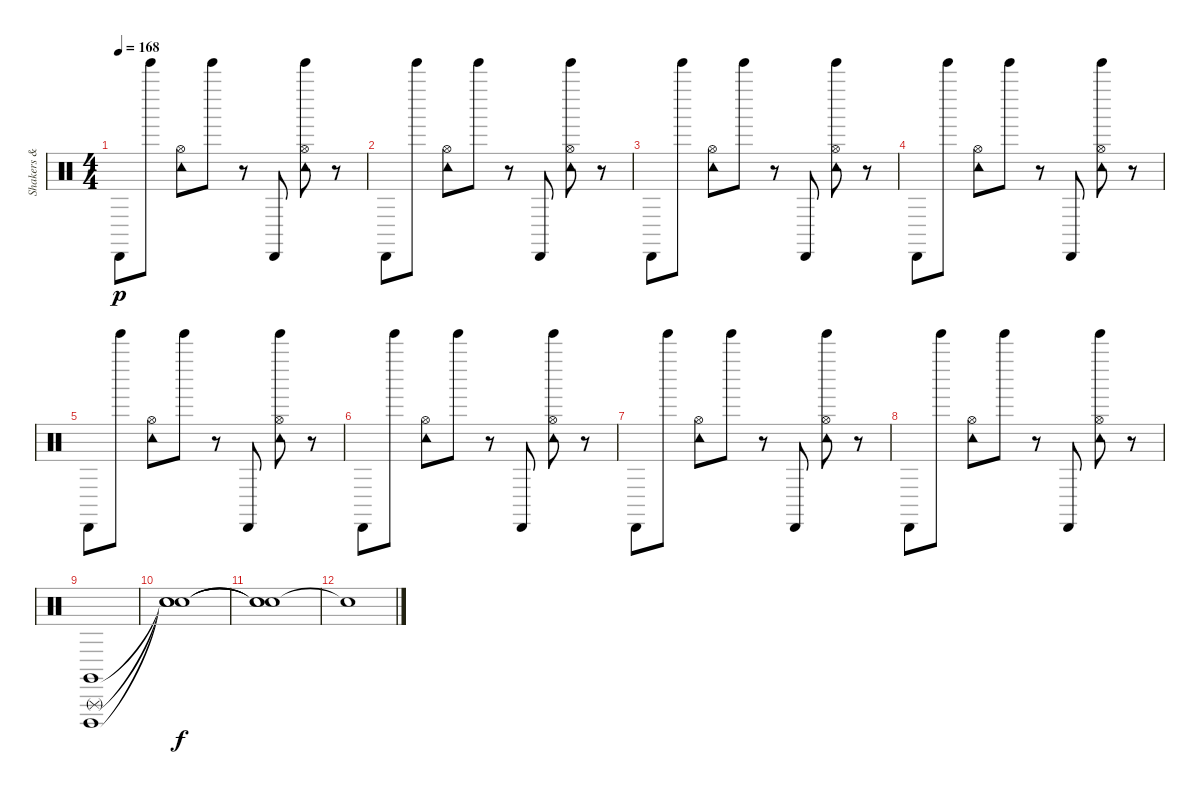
\track ("Shakers & Effects" "Shakers & ") {instrument percussion}
\staff {score}
\articulation defaults
\ts (4 4)
\tempo 168
\clef neutral
\ks c "Cabasa (hit)".8{dy p} "Tinkle Bell (hit)".8
("Tambourine (hit)" "Hi-Hat (open)").8 "Tinkle Bell (hit)".8 r.8 "Cabasa (hit)".8 ("Tambourine (hit)" "Tinkle Bell (hit)" "Hi-Hat (open)").8 r.8 |
"Cabasa (hit)".8 "Tinkle Bell (hit)".8 ("Tambourine (hit)" "Hi-Hat (open)").8 "Tinkle Bell (hit)".8 r.8 "Cabasa (hit)".8 ("Tambourine (hit)" "Tinkle Bell (hit)" "Hi-Hat (open)").8 r.8 |
"Cabasa (hit)".8 "Tinkle Bell (hit)".8 ("Tambourine (hit)" "Hi-Hat (open)").8 "Tinkle Bell (hit)".8 r.8 "Cabasa (hit)".8 ("Tambourine (hit)" "Tinkle Bell (hit)" "Hi-Hat (open)").8 r.8 |
"Cabasa (hit)".8 "Tinkle Bell (hit)".8 ("Tambourine (hit)" "Hi-Hat (open)").8 "Tinkle Bell (hit)".8 r.8 "Cabasa (hit)".8 ("Tambourine (hit)" "Tinkle Bell (hit)" "Hi-Hat (open)").8 r.8 |
"Cabasa (hit)".8 "Tinkle Bell (hit)".8 ("Tambourine (hit)" "Hi-Hat (open)").8 "Tinkle Bell (hit)".8 r.8 "Cabasa (hit)".8 ("Tambourine (hit)" "Tinkle Bell (hit)" "Hi-Hat (open)").8 r.8 |
"Cabasa (hit)".8 "Tinkle Bell (hit)".8 ("Tambourine (hit)" "Hi-Hat (open)").8 "Tinkle Bell (hit)".8 r.8 "Cabasa (hit)".8 ("Tambourine (hit)" "Tinkle Bell (hit)" "Hi-Hat (open)").8 r.8 |
"Cabasa (hit)".8 "Tinkle Bell (hit)".8 ("Tambourine (hit)" "Hi-Hat (open)").8 "Tinkle Bell (hit)".8 r.8 "Cabasa (hit)".8 ("Tambourine (hit)" "Tinkle Bell (hit)" "Hi-Hat (open)").8 r.8 |
"Cabasa (hit)".8 "Tinkle Bell (hit)".8 ("Tambourine (hit)" "Hi-Hat (open)").8 "Tinkle Bell (hit)".8 r.8 "Cabasa (hit)".8 ("Tambourine (hit)" "Tinkle Bell (hit)" "Hi-Hat (open)").8 r.8 |
("Claves (hit)" "Triangle (rnute)" "Cuica (open)").1 |
("Snare (hit)"{t} "Snare (hit)"{t} "Snare (hit)"{t}).1{dy f} |
("Snare (hit)"{t} "Snare (hit)"{t} "Snare (hit)"{t}).1 |
"Snare (hit)"{t}.1
